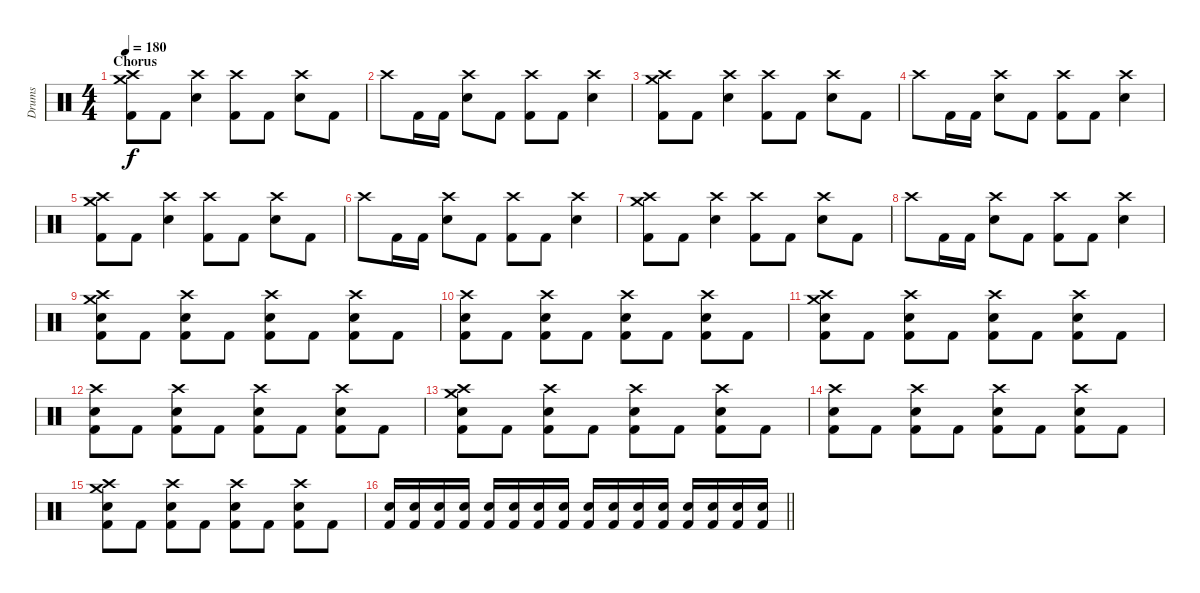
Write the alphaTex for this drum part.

\track ("Drums" "Drums") {instrument percussion}
\staff {score}
\articulation defaults
\ts (4 4)
\section ("" "Chorus")
\tempo 180
\clef neutral
\ks c
("Crash high (hit)" "Crash medium (hit)" "Kick (hit) 2").8{dy f} "Kick (hit) 2".8 ("Crash high (hit)" "Electric Snare (hit)").4 ("Crash high (hit)" "Kick (hit) 2").8 "Kick (hit) 2".8 ("Crash high (hit)" "Electric Snare (hit)").8 "Kick (hit) 2".8 |
"Crash high (hit)".8 "Kick (hit) 2".16 "Kick (hit) 2".16 ("Crash high (hit)" "Electric Snare (hit)").8 "Kick (hit) 2".8 ("Crash high (hit)" "Kick (hit) 2").8 "Kick (hit) 2".8 ("Crash high (hit)" "Electric Snare (hit)").4 |
("Crash high (hit)" "Crash medium (hit)" "Kick (hit) 2").8 "Kick (hit) 2".8 ("Crash high (hit)" "Electric Snare (hit)").4 ("Crash high (hit)" "Kick (hit) 2").8 "Kick (hit) 2".8 ("Crash high (hit)" "Electric Snare (hit)").8 "Kick (hit) 2".8 |
"Crash high (hit)".8 "Kick (hit) 2".16 "Kick (hit) 2".16 ("Crash high (hit)" "Electric Snare (hit)").8 "Kick (hit) 2".8 ("Crash high (hit)" "Kick (hit) 2").8 "Kick (hit) 2".8 ("Crash high (hit)" "Electric Snare (hit)").4 |
("Crash high (hit)" "Crash medium (hit)" "Kick (hit) 2").8 "Kick (hit) 2".8 ("Crash high (hit)" "Electric Snare (hit)").4 ("Crash high (hit)" "Kick (hit) 2").8 "Kick (hit) 2".8 ("Crash high (hit)" "Electric Snare (hit)").8 "Kick (hit) 2".8 |
"Crash high (hit)".8 "Kick (hit) 2".16 "Kick (hit) 2".16 ("Crash high (hit)" "Electric Snare (hit)").8 "Kick (hit) 2".8 ("Crash high (hit)" "Kick (hit) 2").8 "Kick (hit) 2".8 ("Crash high (hit)" "Electric Snare (hit)").4 |
("Crash high (hit)" "Crash medium (hit)" "Kick (hit) 2").8 "Kick (hit) 2".8 ("Crash high (hit)" "Electric Snare (hit)").4 ("Crash high (hit)" "Kick (hit) 2").8 "Kick (hit) 2".8 ("Crash high (hit)" "Electric Snare (hit)").8 "Kick (hit) 2".8 |
"Crash high (hit)".8 "Kick (hit) 2".16 "Kick (hit) 2".16 ("Crash high (hit)" "Electric Snare (hit)").8 "Kick (hit) 2".8 ("Crash high (hit)" "Kick (hit) 2").8 "Kick (hit) 2".8 ("Crash high (hit)" "Electric Snare (hit)").4 |
("Crash high (hit)" "Crash medium (hit)" "Electric Snare (hit)" "Kick (hit) 2").8 "Kick (hit) 2".8 ("Crash high (hit)" "Electric Snare (hit)" "Kick (hit) 2").8 "Kick (hit) 2".8 ("Crash high (hit)" "Electric Snare (hit)" "Kick (hit) 2").8 "Kick (hit) 2".8 ("Crash high (hit)" "Electric Snare (hit)" "Kick (hit) 2").8 "Kick (hit) 2".8 |
("Crash high (hit)" "Electric Snare (hit)" "Kick (hit) 2").8 "Kick (hit) 2".8 ("Crash high (hit)" "Electric Snare (hit)" "Kick (hit) 2").8 "Kick (hit) 2".8 ("Crash high (hit)" "Electric Snare (hit)" "Kick (hit) 2").8 "Kick (hit) 2".8 ("Crash high (hit)" "Electric Snare (hit)" "Kick (hit) 2").8 "Kick (hit) 2".8 |
("Crash high (hit)" "Crash medium (hit)" "Electric Snare (hit)" "Kick (hit) 2").8 "Kick (hit) 2".8 ("Crash high (hit)" "Electric Snare (hit)" "Kick (hit) 2").8 "Kick (hit) 2".8 ("Crash high (hit)" "Electric Snare (hit)" "Kick (hit) 2").8 "Kick (hit) 2".8 ("Crash high (hit)" "Electric Snare (hit)" "Kick (hit) 2").8 "Kick (hit) 2".8 |
("Crash high (hit)" "Electric Snare (hit)" "Kick (hit) 2").8 "Kick (hit) 2".8 ("Crash high (hit)" "Electric Snare (hit)" "Kick (hit) 2").8 "Kick (hit) 2".8 ("Crash high (hit)" "Electric Snare (hit)" "Kick (hit) 2").8 "Kick (hit) 2".8 ("Crash high (hit)" "Electric Snare (hit)" "Kick (hit) 2").8 "Kick (hit) 2".8 |
("Crash high (hit)" "Crash medium (hit)" "Electric Snare (hit)" "Kick (hit) 2").8 "Kick (hit) 2".8 ("Crash high (hit)" "Electric Snare (hit)" "Kick (hit) 2").8 "Kick (hit) 2".8 ("Crash high (hit)" "Electric Snare (hit)" "Kick (hit) 2").8 "Kick (hit) 2".8 ("Crash high (hit)" "Electric Snare (hit)" "Kick (hit) 2").8 "Kick (hit) 2".8 |
("Crash high (hit)" "Electric Snare (hit)" "Kick (hit) 2").8 "Kick (hit) 2".8 ("Crash high (hit)" "Electric Snare (hit)" "Kick (hit) 2").8 "Kick (hit) 2".8 ("Crash high (hit)" "Electric Snare (hit)" "Kick (hit) 2").8 "Kick (hit) 2".8 ("Crash high (hit)" "Electric Snare (hit)" "Kick (hit) 2").8 "Kick (hit) 2".8 |
("Crash high (hit)" "Crash medium (hit)" "Electric Snare (hit)" "Kick (hit) 2").8 "Kick (hit) 2".8 ("Crash high (hit)" "Electric Snare (hit)" "Kick (hit) 2").8 "Kick (hit) 2".8 ("Crash high (hit)" "Electric Snare (hit)" "Kick (hit) 2").8 "Kick (hit) 2".8 ("Crash high (hit)" "Electric Snare (hit)" "Kick (hit) 2").8 "Kick (hit) 2".8 |
\barLineRight lightlight
("Electric Snare (hit)" "Kick (hit) 2").16 ("Electric Snare (hit)" "Kick (hit) 2").16 ("Electric Snare (hit)" "Kick (hit) 2").16 ("Electric Snare (hit)" "Kick (hit) 2").16 ("Electric Snare (hit)" "Kick (hit) 2").16 ("Electric Snare (hit)" "Kick (hit) 2").16 ("Electric Snare (hit)" "Kick (hit) 2").16 ("Electric Snare (hit)" "Kick (hit) 2").16 ("Electric Snare (hit)" "Kick (hit) 2").16 ("Electric Snare (hit)" "Kick (hit) 2").16 ("Electric Snare (hit)" "Kick (hit) 2").16 ("Electric Snare (hit)" "Kick (hit) 2").16 ("Electric Snare (hit)" "Kick (hit) 2").16 ("Electric Snare (hit)" "Kick (hit) 2").16 ("Electric Snare (hit)" "Kick (hit) 2").16 ("Electric Snare (hit)" "Kick (hit) 2").16
